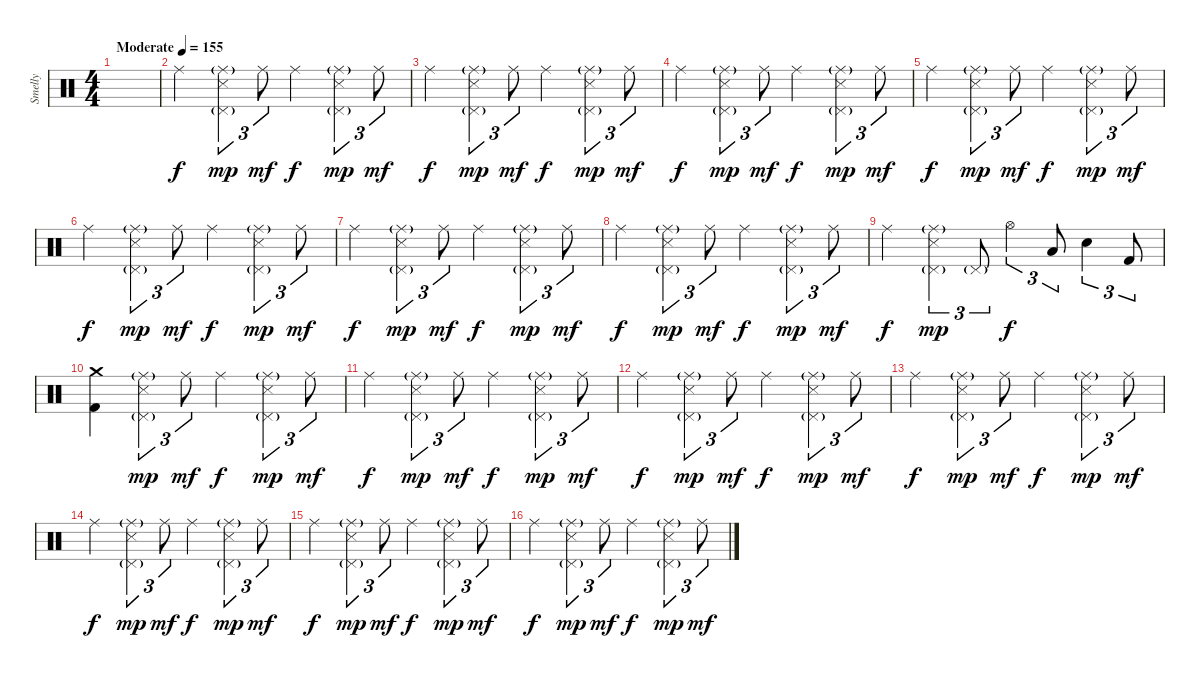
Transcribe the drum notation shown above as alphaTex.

\track ("Smelly" "Smelly") {instrument percussion}
\staff {score}
\articulation defaults
\ts (4 4)
\tempo (155 "Moderate")
\clef neutral
\ks c
|
"Ride (middle)".4 ("Ride (middle)"{g} "Pedal Hi-Hat (hit)"{g} "Snare (side stick) 3").4{tu (3 2) dy mp} "Ride (middle)".8{tu (3 2) dy mf} "Ride (middle)".4{dy f} ("Ride (middle)"{g} "Pedal Hi-Hat (hit)"{g} "Snare (side stick) 3").4{tu (3 2) dy mp} "Ride (middle)".8{tu (3 2) dy mf} |
"Ride (middle)".4{dy f} ("Ride (middle)"{g} "Pedal Hi-Hat (hit)"{g} "Snare (side stick) 3").4{tu (3 2) dy mp} "Ride (middle)".8{tu (3 2) dy mf} "Ride (middle)".4{dy f} ("Ride (middle)"{g} "Pedal Hi-Hat (hit)"{g} "Snare (side stick) 3").4{tu (3 2) dy mp} "Ride (middle)".8{tu (3 2) dy mf} |
"Ride (middle)".4{dy f} ("Ride (middle)"{g} "Pedal Hi-Hat (hit)"{g} "Snare (side stick) 3").4{tu (3 2) dy mp} "Ride (middle)".8{tu (3 2) dy mf} "Ride (middle)".4{dy f} ("Ride (middle)"{g} "Pedal Hi-Hat (hit)"{g} "Snare (side stick) 3").4{tu (3 2) dy mp} "Ride (middle)".8{tu (3 2) dy mf} |
"Ride (middle)".4{dy f} ("Ride (middle)"{g} "Pedal Hi-Hat (hit)"{g} "Snare (side stick) 3").4{tu (3 2) dy mp} "Ride (middle)".8{tu (3 2) dy mf} "Ride (middle)".4{dy f} ("Ride (middle)"{g} "Pedal Hi-Hat (hit)"{g} "Snare (side stick) 3").4{tu (3 2) dy mp} "Ride (middle)".8{tu (3 2) dy mf} |
"Ride (middle)".4{dy f} ("Ride (middle)"{g} "Pedal Hi-Hat (hit)"{g} "Snare (side stick) 3").4{tu (3 2) dy mp} "Ride (middle)".8{tu (3 2) dy mf} "Ride (middle)".4{dy f} ("Ride (middle)"{g} "Pedal Hi-Hat (hit)"{g} "Snare (side stick) 3").4{tu (3 2) dy mp} "Ride (middle)".8{tu (3 2) dy mf} |
"Ride (middle)".4{dy f} ("Ride (middle)"{g} "Pedal Hi-Hat (hit)"{g} "Snare (side stick) 3").4{tu (3 2) dy mp} "Ride (middle)".8{tu (3 2) dy mf} "Ride (middle)".4{dy f} ("Ride (middle)"{g} "Pedal Hi-Hat (hit)"{g} "Snare (side stick) 3").4{tu (3 2) dy mp} "Ride (middle)".8{tu (3 2) dy mf} |
"Ride (middle)".4{dy f} ("Ride (middle)"{g} "Pedal Hi-Hat (hit)"{g} "Snare (side stick) 3").4{tu (3 2) dy mp} "Ride (middle)".8{tu (3 2) dy mf} "Ride (middle)".4{dy f} ("Ride (middle)"{g} "Pedal Hi-Hat (hit)"{g} "Snare (side stick) 3").4{tu (3 2) dy mp} "Ride (middle)".8{tu (3 2) dy mf} |
"Ride (middle)".4{dy f} ("Ride (middle)"{g} "Pedal Hi-Hat (hit)"{g} "Snare (side stick) 3").4{tu (3 2) dy mp} "Pedal Hi-Hat (hit)"{g}.8{tu (3 2)} "Hi-Hat (open)".4{tu (3 2) dy f} "Low Tom (hit)".8{tu (3 2)} "Electric Snare (hit)".4{tu (3 2)} "Kick (hit) 2".8{tu (3 2)} |
("Crash medium (hit)" "Kick (hit) 2").4 ("Ride (middle)"{g} "Pedal Hi-Hat (hit)"{g} "Snare (side stick) 3").4{tu (3 2) dy mp} "Ride (middle)".8{tu (3 2) dy mf} "Ride (middle)".4{dy f} ("Ride (middle)"{g} "Pedal Hi-Hat (hit)"{g} "Snare (side stick) 3").4{tu (3 2) dy mp} "Ride (middle)".8{tu (3 2) dy mf} |
"Ride (middle)".4{dy f} ("Ride (middle)"{g} "Pedal Hi-Hat (hit)"{g} "Snare (side stick) 3").4{tu (3 2) dy mp} "Ride (middle)".8{tu (3 2) dy mf} "Ride (middle)".4{dy f} ("Ride (middle)"{g} "Pedal Hi-Hat (hit)"{g} "Snare (side stick) 3").4{tu (3 2) dy mp} "Ride (middle)".8{tu (3 2) dy mf} |
"Ride (middle)".4{dy f} ("Ride (middle)"{g} "Pedal Hi-Hat (hit)"{g} "Snare (side stick) 3").4{tu (3 2) dy mp} "Ride (middle)".8{tu (3 2) dy mf} "Ride (middle)".4{dy f} ("Ride (middle)"{g} "Pedal Hi-Hat (hit)"{g} "Snare (side stick) 3").4{tu (3 2) dy mp} "Ride (middle)".8{tu (3 2) dy mf} |
"Ride (middle)".4{dy f} ("Ride (middle)"{g} "Pedal Hi-Hat (hit)"{g} "Snare (side stick) 3").4{tu (3 2) dy mp} "Ride (middle)".8{tu (3 2) dy mf} "Ride (middle)".4{dy f} ("Ride (middle)"{g} "Pedal Hi-Hat (hit)"{g} "Snare (side stick) 3").4{tu (3 2) dy mp} "Ride (middle)".8{tu (3 2) dy mf} |
"Ride (middle)".4{dy f} ("Ride (middle)"{g} "Pedal Hi-Hat (hit)"{g} "Snare (side stick) 3").4{tu (3 2) dy mp} "Ride (middle)".8{tu (3 2) dy mf} "Ride (middle)".4{dy f} ("Ride (middle)"{g} "Pedal Hi-Hat (hit)"{g} "Snare (side stick) 3").4{tu (3 2) dy mp} "Ride (middle)".8{tu (3 2) dy mf} |
"Ride (middle)".4{dy f} ("Ride (middle)"{g} "Pedal Hi-Hat (hit)"{g} "Snare (side stick) 3").4{tu (3 2) dy mp} "Ride (middle)".8{tu (3 2) dy mf} "Ride (middle)".4{dy f} ("Ride (middle)"{g} "Pedal Hi-Hat (hit)"{g} "Snare (side stick) 3").4{tu (3 2) dy mp} "Ride (middle)".8{tu (3 2) dy mf} |
"Ride (middle)".4{dy f} ("Ride (middle)"{g} "Pedal Hi-Hat (hit)"{g} "Snare (side stick) 3").4{tu (3 2) dy mp} "Ride (middle)".8{tu (3 2) dy mf} "Ride (middle)".4{dy f} ("Ride (middle)"{g} "Pedal Hi-Hat (hit)"{g} "Snare (side stick) 3").4{tu (3 2) dy mp} "Ride (middle)".8{tu (3 2) dy mf}
